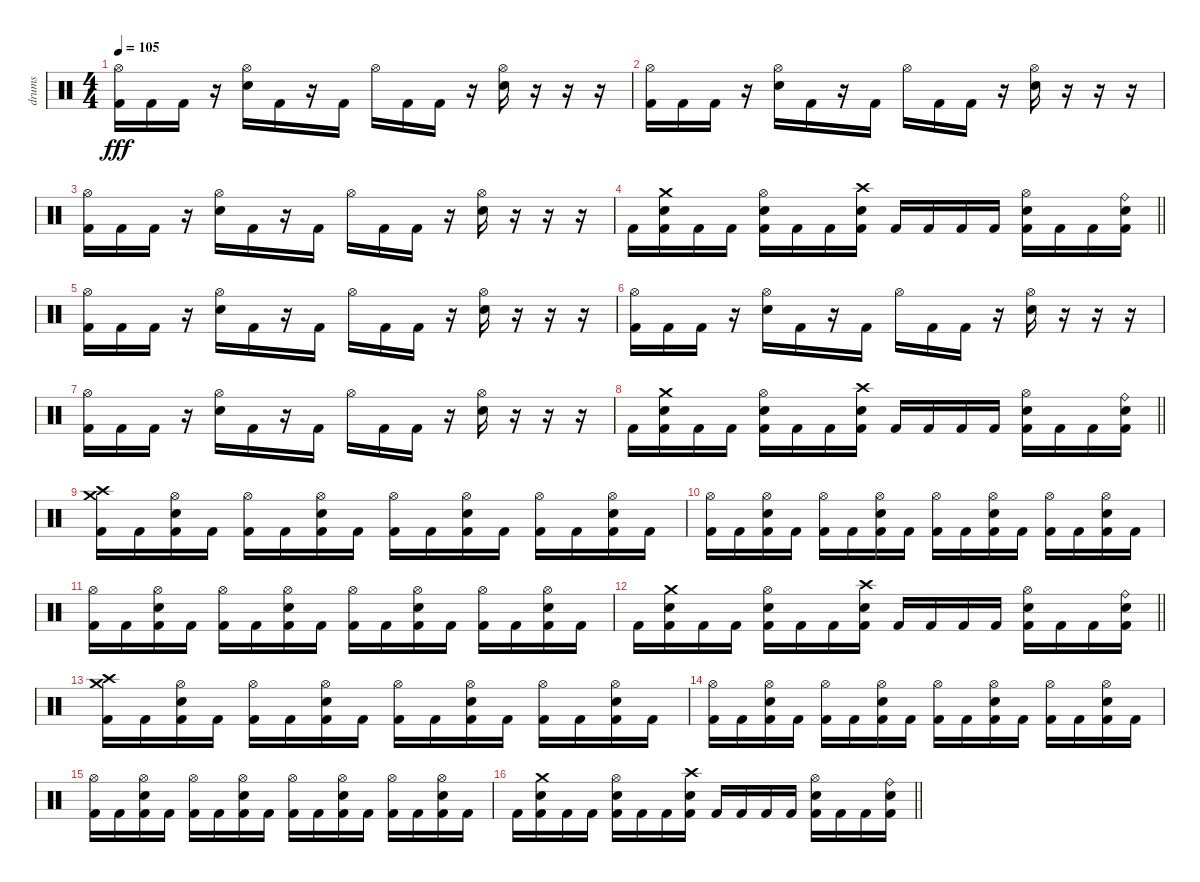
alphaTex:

\track ("drums" "drums") {instrument percussion}
\staff {score}
\articulation defaults
\ts (4 4)
\section ("" "")
\tempo 105
\clef neutral
\ks c
("Hi-Hat (open)" "Kick (hit) 2").16{dy fff} "Kick (hit) 2".16 "Kick (hit) 2".16 r.16 ("Hi-Hat (open)" "Electric Snare (hit)").16 "Kick (hit) 2".16 r.16 "Kick (hit) 2".16 "Hi-Hat (open)".16 "Kick (hit) 2".16 "Kick (hit) 2".16 r.16 ("Hi-Hat (open)" "Electric Snare (hit)").16 r.16 r.16 r.16 |
("Hi-Hat (open)" "Kick (hit) 2").16 "Kick (hit) 2".16 "Kick (hit) 2".16 r.16 ("Hi-Hat (open)" "Electric Snare (hit)").16 "Kick (hit) 2".16 r.16 "Kick (hit) 2".16 "Hi-Hat (open)".16 "Kick (hit) 2".16 "Kick (hit) 2".16 r.16 ("Hi-Hat (open)" "Electric Snare (hit)").16 r.16 r.16 r.16 |
("Hi-Hat (open)" "Kick (hit) 2").16 "Kick (hit) 2".16 "Kick (hit) 2".16 r.16 ("Hi-Hat (open)" "Electric Snare (hit)").16 "Kick (hit) 2".16 r.16 "Kick (hit) 2".16 "Hi-Hat (open)".16 "Kick (hit) 2".16 "Kick (hit) 2".16 r.16 ("Hi-Hat (open)" "Electric Snare (hit)").16 r.16 r.16 r.16 |
\barLineRight lightlight "Kick (hit) 2".16
("Crash medium (hit)" "Electric Snare (hit)" "Kick (hit) 2").16 "Kick (hit) 2".16 "Kick (hit) 2".16 ("Hi-Hat (open)" "Electric Snare (hit)" "Kick (hit) 2").16 "Kick (hit) 2".16 "Kick (hit) 2".16 ("Crash high (hit)" "Electric Snare (hit)" "Kick (hit) 2").16 "Kick (hit) 2".16 "Kick (hit) 2".16 "Kick (hit) 2".16 "Kick (hit) 2".16 ("Hi-Hat (open)" "Electric Snare (hit)" "Kick (hit) 2").16 "Kick (hit) 2".16 "Kick (hit) 2".16 ("Ride (bell)" "Electric Snare (hit)" "Kick (hit) 2").16 |
("Hi-Hat (open)" "Kick (hit) 2").16 "Kick (hit) 2".16 "Kick (hit) 2".16 r.16 ("Hi-Hat (open)" "Electric Snare (hit)").16 "Kick (hit) 2".16 r.16 "Kick (hit) 2".16 "Hi-Hat (open)".16 "Kick (hit) 2".16 "Kick (hit) 2".16 r.16 ("Hi-Hat (open)" "Electric Snare (hit)").16 r.16 r.16 r.16 |
("Hi-Hat (open)" "Kick (hit) 2").16 "Kick (hit) 2".16 "Kick (hit) 2".16 r.16 ("Hi-Hat (open)" "Electric Snare (hit)").16 "Kick (hit) 2".16 r.16 "Kick (hit) 2".16 "Hi-Hat (open)".16 "Kick (hit) 2".16 "Kick (hit) 2".16 r.16 ("Hi-Hat (open)" "Electric Snare (hit)").16 r.16 r.16 r.16 |
("Hi-Hat (open)" "Kick (hit) 2").16 "Kick (hit) 2".16 "Kick (hit) 2".16 r.16 ("Hi-Hat (open)" "Electric Snare (hit)").16 "Kick (hit) 2".16 r.16 "Kick (hit) 2".16 "Hi-Hat (open)".16 "Kick (hit) 2".16 "Kick (hit) 2".16 r.16 ("Hi-Hat (open)" "Electric Snare (hit)").16 r.16 r.16 r.16 |
\barLineRight lightlight "Kick (hit) 2".16
("Crash medium (hit)" "Electric Snare (hit)" "Kick (hit) 2").16 "Kick (hit) 2".16 "Kick (hit) 2".16 ("Hi-Hat (open)" "Electric Snare (hit)" "Kick (hit) 2").16 "Kick (hit) 2".16 "Kick (hit) 2".16 ("Crash high (hit)" "Electric Snare (hit)" "Kick (hit) 2").16 "Kick (hit) 2".16 "Kick (hit) 2".16 "Kick (hit) 2".16 "Kick (hit) 2".16 ("Hi-Hat (open)" "Electric Snare (hit)" "Kick (hit) 2").16 "Kick (hit) 2".16 "Kick (hit) 2".16 ("Ride (bell)" "Electric Snare (hit)" "Kick (hit) 2").16 |
\section ("" "")
("Crash high (hit)" "Crash medium (hit)" "Kick (hit) 2").16 "Kick (hit) 2".16 ("Hi-Hat (open)" "Electric Snare (hit)" "Kick (hit) 2").16 "Kick (hit) 2".16 ("Hi-Hat (open)" "Kick (hit) 2").16 "Kick (hit) 2".16 ("Hi-Hat (open)" "Electric Snare (hit)" "Kick (hit) 2").16 "Kick (hit) 2".16 ("Hi-Hat (open)" "Kick (hit) 2").16 "Kick (hit) 2".16 ("Hi-Hat (open)" "Electric Snare (hit)" "Kick (hit) 2").16 "Kick (hit) 2".16 ("Hi-Hat (open)" "Kick (hit) 2").16 "Kick (hit) 2".16 ("Hi-Hat (open)" "Electric Snare (hit)" "Kick (hit) 2").16 "Kick (hit) 2".16 |
("Hi-Hat (open)" "Kick (hit) 2").16 "Kick (hit) 2".16 ("Hi-Hat (open)" "Electric Snare (hit)" "Kick (hit) 2").16 "Kick (hit) 2".16 ("Hi-Hat (open)" "Kick (hit) 2").16 "Kick (hit) 2".16 ("Hi-Hat (open)" "Electric Snare (hit)" "Kick (hit) 2").16 "Kick (hit) 2".16 ("Hi-Hat (open)" "Kick (hit) 2").16 "Kick (hit) 2".16 ("Hi-Hat (open)" "Electric Snare (hit)" "Kick (hit) 2").16 "Kick (hit) 2".16 ("Hi-Hat (open)" "Kick (hit) 2").16 "Kick (hit) 2".16 ("Hi-Hat (open)" "Electric Snare (hit)" "Kick (hit) 2").16 "Kick (hit) 2".16 |
("Hi-Hat (open)" "Kick (hit) 2").16 "Kick (hit) 2".16 ("Hi-Hat (open)" "Electric Snare (hit)" "Kick (hit) 2").16 "Kick (hit) 2".16 ("Hi-Hat (open)" "Kick (hit) 2").16 "Kick (hit) 2".16 ("Hi-Hat (open)" "Electric Snare (hit)" "Kick (hit) 2").16 "Kick (hit) 2".16 ("Hi-Hat (open)" "Kick (hit) 2").16 "Kick (hit) 2".16 ("Hi-Hat (open)" "Electric Snare (hit)" "Kick (hit) 2").16 "Kick (hit) 2".16 ("Hi-Hat (open)" "Kick (hit) 2").16 "Kick (hit) 2".16 ("Hi-Hat (open)" "Electric Snare (hit)" "Kick (hit) 2").16 "Kick (hit) 2".16 |
\barLineRight lightlight "Kick (hit) 2".16
("Crash medium (hit)" "Electric Snare (hit)" "Kick (hit) 2").16 "Kick (hit) 2".16 "Kick (hit) 2".16 ("Hi-Hat (open)" "Electric Snare (hit)" "Kick (hit) 2").16 "Kick (hit) 2".16 "Kick (hit) 2".16 ("Crash high (hit)" "Electric Snare (hit)" "Kick (hit) 2").16 "Kick (hit) 2".16 "Kick (hit) 2".16 "Kick (hit) 2".16 "Kick (hit) 2".16 ("Hi-Hat (open)" "Electric Snare (hit)" "Kick (hit) 2").16 "Kick (hit) 2".16 "Kick (hit) 2".16 ("Ride (bell)" "Electric Snare (hit)" "Kick (hit) 2").16 |
("Crash high (hit)" "Crash medium (hit)" "Kick (hit) 2").16 "Kick (hit) 2".16 ("Hi-Hat (open)" "Electric Snare (hit)" "Kick (hit) 2").16 "Kick (hit) 2".16 ("Hi-Hat (open)" "Kick (hit) 2").16 "Kick (hit) 2".16 ("Hi-Hat (open)" "Electric Snare (hit)" "Kick (hit) 2").16 "Kick (hit) 2".16 ("Hi-Hat (open)" "Kick (hit) 2").16 "Kick (hit) 2".16 ("Hi-Hat (open)" "Electric Snare (hit)" "Kick (hit) 2").16 "Kick (hit) 2".16 ("Hi-Hat (open)" "Kick (hit) 2").16 "Kick (hit) 2".16 ("Hi-Hat (open)" "Electric Snare (hit)" "Kick (hit) 2").16 "Kick (hit) 2".16 |
("Hi-Hat (open)" "Kick (hit) 2").16 "Kick (hit) 2".16 ("Hi-Hat (open)" "Electric Snare (hit)" "Kick (hit) 2").16 "Kick (hit) 2".16 ("Hi-Hat (open)" "Kick (hit) 2").16 "Kick (hit) 2".16 ("Hi-Hat (open)" "Electric Snare (hit)" "Kick (hit) 2").16 "Kick (hit) 2".16 ("Hi-Hat (open)" "Kick (hit) 2").16 "Kick (hit) 2".16 ("Hi-Hat (open)" "Electric Snare (hit)" "Kick (hit) 2").16 "Kick (hit) 2".16 ("Hi-Hat (open)" "Kick (hit) 2").16 "Kick (hit) 2".16 ("Hi-Hat (open)" "Electric Snare (hit)" "Kick (hit) 2").16 "Kick (hit) 2".16 |
("Hi-Hat (open)" "Kick (hit) 2").16 "Kick (hit) 2".16 ("Hi-Hat (open)" "Electric Snare (hit)" "Kick (hit) 2").16 "Kick (hit) 2".16 ("Hi-Hat (open)" "Kick (hit) 2").16 "Kick (hit) 2".16 ("Hi-Hat (open)" "Electric Snare (hit)" "Kick (hit) 2").16 "Kick (hit) 2".16 ("Hi-Hat (open)" "Kick (hit) 2").16 "Kick (hit) 2".16 ("Hi-Hat (open)" "Electric Snare (hit)" "Kick (hit) 2").16 "Kick (hit) 2".16 ("Hi-Hat (open)" "Kick (hit) 2").16 "Kick (hit) 2".16 ("Hi-Hat (open)" "Electric Snare (hit)" "Kick (hit) 2").16 "Kick (hit) 2".16 |
\barLineRight lightlight "Kick (hit) 2".16
("Crash medium (hit)" "Electric Snare (hit)" "Kick (hit) 2").16 "Kick (hit) 2".16 "Kick (hit) 2".16 ("Hi-Hat (open)" "Electric Snare (hit)" "Kick (hit) 2").16 "Kick (hit) 2".16 "Kick (hit) 2".16 ("Crash high (hit)" "Electric Snare (hit)" "Kick (hit) 2").16 "Kick (hit) 2".16 "Kick (hit) 2".16 "Kick (hit) 2".16 "Kick (hit) 2".16 ("Hi-Hat (open)" "Electric Snare (hit)" "Kick (hit) 2").16 "Kick (hit) 2".16 "Kick (hit) 2".16 ("Ride (bell)" "Electric Snare (hit)" "Kick (hit) 2").16
